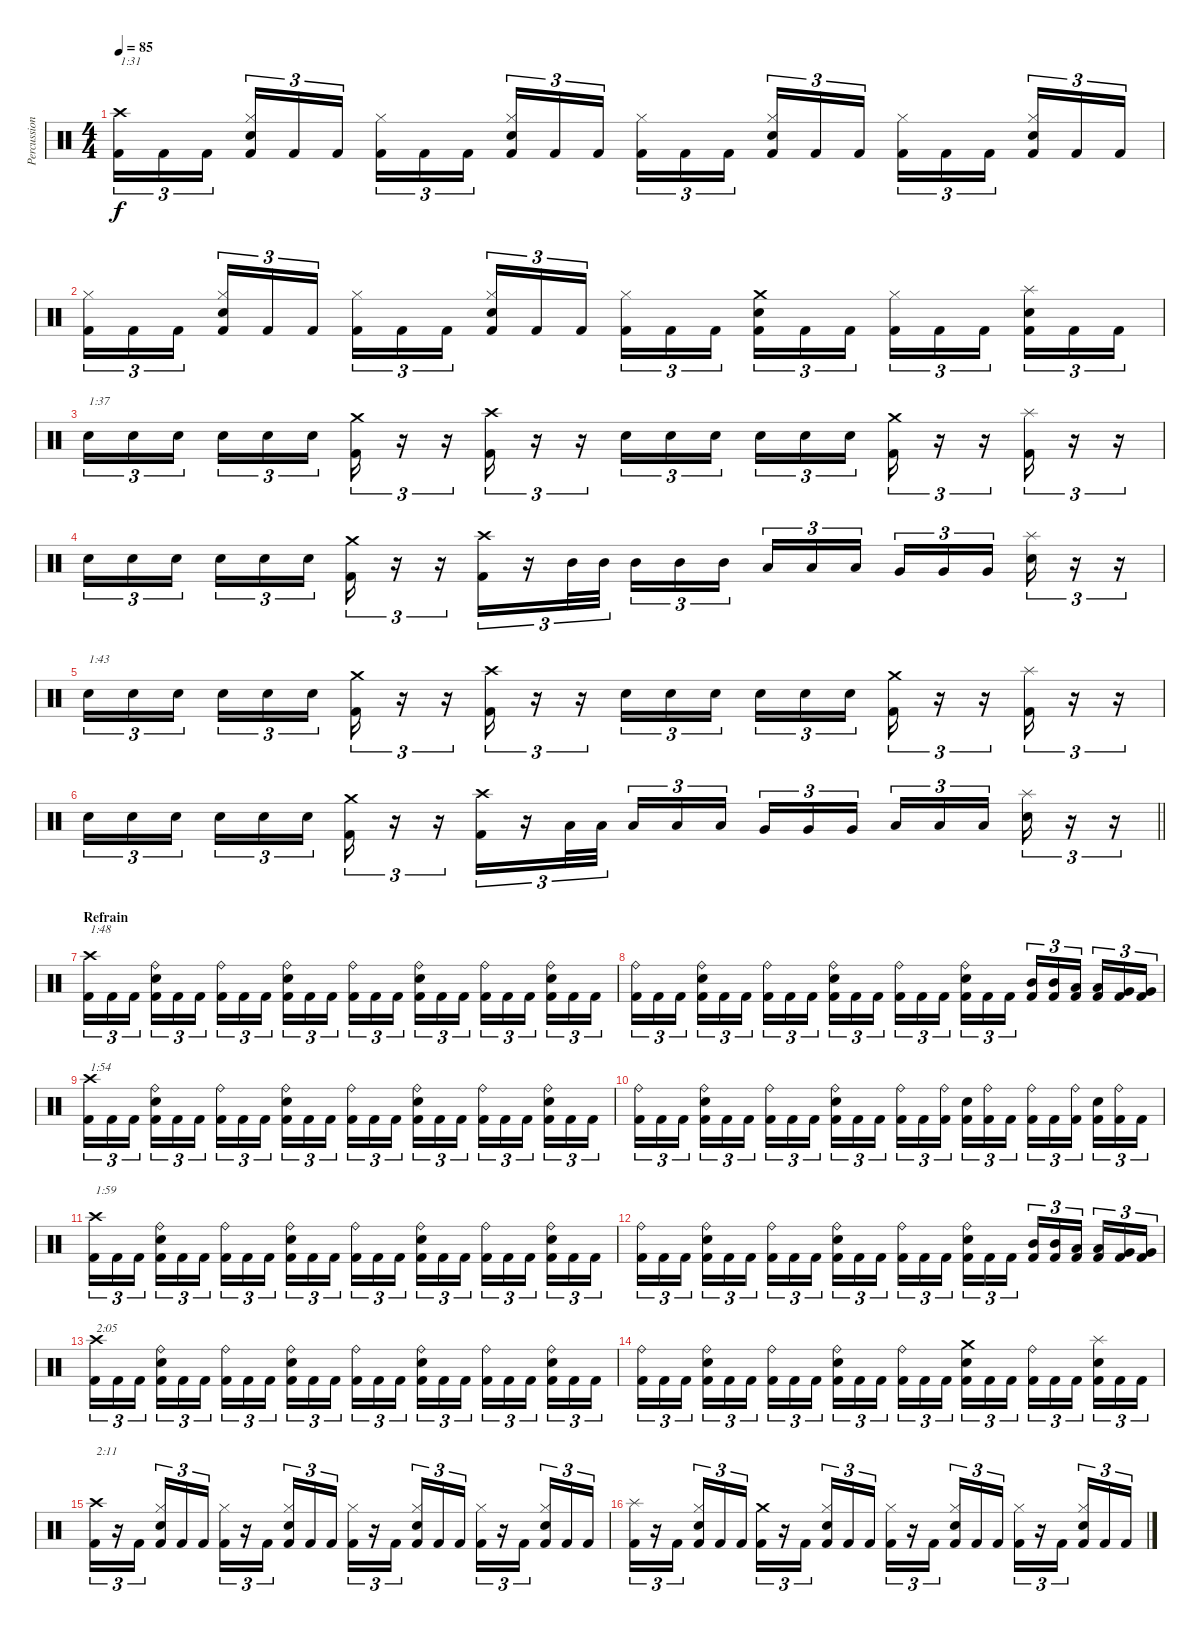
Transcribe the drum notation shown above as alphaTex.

\track ("Percussion" "Percussion") {instrument percussion}
\staff {score}
\articulation defaults
\ts (4 4)
\tempo 85
\clef neutral
\ks c
("Crash high (hit)" "Kick (hit) 2").16{tu (3 2) txt "1:31" dy f} "Kick (hit) 2".16{tu (3 2)} "Kick (hit) 2".16{tu (3 2)} ("Hi-Hat (closed)" "Electric Snare (hit)" "Kick (hit) 2").16{tu (3 2)} "Kick (hit) 2".16{tu (3 2)} "Kick (hit) 2".16{tu (3 2)} ("Hi-Hat (closed)" "Kick (hit) 2").16{tu (3 2)} "Kick (hit) 2".16{tu (3 2)} "Kick (hit) 2".16{tu (3 2)} ("Hi-Hat (closed)" "Electric Snare (hit)" "Kick (hit) 2").16{tu (3 2)} "Kick (hit) 2".16{tu (3 2)} "Kick (hit) 2".16{tu (3 2)} ("Hi-Hat (closed)" "Kick (hit) 2").16{tu (3 2)} "Kick (hit) 2".16{tu (3 2)} "Kick (hit) 2".16{tu (3 2)} ("Hi-Hat (closed)" "Electric Snare (hit)" "Kick (hit) 2").16{tu (3 2)} "Kick (hit) 2".16{tu (3 2)} "Kick (hit) 2".16{tu (3 2)} ("Hi-Hat (closed)" "Kick (hit) 2").16{tu (3 2)} "Kick (hit) 2".16{tu (3 2)} "Kick (hit) 2".16{tu (3 2)} ("Hi-Hat (closed)" "Electric Snare (hit)" "Kick (hit) 2").16{tu (3 2)} "Kick (hit) 2".16{tu (3 2)} "Kick (hit) 2".16{tu (3 2)} |
("Hi-Hat (closed)" "Kick (hit) 2").16{tu (3 2)} "Kick (hit) 2".16{tu (3 2)} "Kick (hit) 2".16{tu (3 2)} ("Hi-Hat (closed)" "Electric Snare (hit)" "Kick (hit) 2").16{tu (3 2)} "Kick (hit) 2".16{tu (3 2)} "Kick (hit) 2".16{tu (3 2)} ("Hi-Hat (closed)" "Kick (hit) 2").16{tu (3 2)} "Kick (hit) 2".16{tu (3 2)} "Kick (hit) 2".16{tu (3 2)} ("Hi-Hat (closed)" "Electric Snare (hit)" "Kick (hit) 2").16{tu (3 2)} "Kick (hit) 2".16{tu (3 2)} "Kick (hit) 2".16{tu (3 2)} ("Hi-Hat (closed)" "Kick (hit) 2").16{tu (3 2)} "Kick (hit) 2".16{tu (3 2)} "Kick (hit) 2".16{tu (3 2)} ("Crash medium (hit)" "Electric Snare (hit)" "Kick (hit) 2").16{tu (3 2)} "Kick (hit) 2".16{tu (3 2)} "Kick (hit) 2".16{tu (3 2)} ("Hi-Hat (closed)" "Kick (hit) 2").16{tu (3 2)} "Kick (hit) 2".16{tu (3 2)} "Kick (hit) 2".16{tu (3 2)} ("Splash (hit)" "Electric Snare (hit)" "Kick (hit) 2").16{tu (3 2)} "Kick (hit) 2".16{tu (3 2)} "Kick (hit) 2".16{tu (3 2)} |
"Electric Snare (hit)".16{tu (3 2) txt "1:37"} "Electric Snare (hit)".16{tu (3 2)} "Electric Snare (hit)".16{tu (3 2)} "Electric Snare (hit)".16{tu (3 2)} "Electric Snare (hit)".16{tu (3 2)} "Electric Snare (hit)".16{tu (3 2)} ("Crash medium (hit)" "Kick (hit) 2").16{tu (3 2)} r.16{tu (3 2)} r.16{tu (3 2)} ("Crash high (hit)" "Kick (hit) 2").16{tu (3 2)} r.16{tu (3 2)} r.16{tu (3 2)} "Electric Snare (hit)".16{tu (3 2)} "Electric Snare (hit)".16{tu (3 2)} "Electric Snare (hit)".16{tu (3 2)} "Electric Snare (hit)".16{tu (3 2)} "Electric Snare (hit)".16{tu (3 2)} "Electric Snare (hit)".16{tu (3 2)} ("Crash medium (hit)" "Kick (hit) 2").16{tu (3 2)} r.16{tu (3 2)} r.16{tu (3 2)} ("Splash (hit)" "Kick (hit) 2").16{tu (3 2)} r.16{tu (3 2)} r.16{tu (3 2)} |
"Electric Snare (hit)".16{tu (3 2)} "Electric Snare (hit)".16{tu (3 2)} "Electric Snare (hit)".16{tu (3 2)} "Electric Snare (hit)".16{tu (3 2)} "Electric Snare (hit)".16{tu (3 2)} "Electric Snare (hit)".16{tu (3 2)} ("Crash medium (hit)" "Kick (hit) 2").16{tu (3 2)} r.16{tu (3 2)} r.16{tu (3 2)} ("Crash high (hit)" "Kick (hit) 2").16{tu (3 2)} r.16{tu (3 2)} "Mid Tom (hit)".32{tu (3 2)} "Mid Tom (hit)".32{tu (3 2)} "Mid Tom (hit)".16{tu (3 2)} "Mid Tom (hit)".16{tu (3 2)} "Mid Tom (hit)".16{tu (3 2)} "Low Tom (hit)".16{tu (3 2)} "Low Tom (hit)".16{tu (3 2)} "Low Tom (hit)".16{tu (3 2)} "Very Low Tom (hit)".16{tu (3 2)} "Very Low Tom (hit)".16{tu (3 2)} "Very Low Tom (hit)".16{tu (3 2)} ("Splash (hit)" "Electric Snare (hit)").16{tu (3 2)} r.16{tu (3 2)} r.16{tu (3 2)} |
"Electric Snare (hit)".16{tu (3 2) txt "1:43"} "Electric Snare (hit)".16{tu (3 2)} "Electric Snare (hit)".16{tu (3 2)} "Electric Snare (hit)".16{tu (3 2)} "Electric Snare (hit)".16{tu (3 2)} "Electric Snare (hit)".16{tu (3 2)} ("Crash medium (hit)" "Kick (hit) 2").16{tu (3 2)} r.16{tu (3 2)} r.16{tu (3 2)} ("Crash high (hit)" "Kick (hit) 2").16{tu (3 2)} r.16{tu (3 2)} r.16{tu (3 2)} "Electric Snare (hit)".16{tu (3 2)} "Electric Snare (hit)".16{tu (3 2)} "Electric Snare (hit)".16{tu (3 2)} "Electric Snare (hit)".16{tu (3 2)} "Electric Snare (hit)".16{tu (3 2)} "Electric Snare (hit)".16{tu (3 2)} ("Crash medium (hit)" "Kick (hit) 2").16{tu (3 2)} r.16{tu (3 2)} r.16{tu (3 2)} ("Splash (hit)" "Kick (hit) 2").16{tu (3 2)} r.16{tu (3 2)} r.16{tu (3 2)} |
\barLineRight lightlight "Electric Snare (hit)".16{tu (3 2)} "Electric Snare (hit)".16{tu (3 2)} "Electric Snare (hit)".16{tu (3 2)} "Electric Snare (hit)".16{tu (3 2)} "Electric Snare (hit)".16{tu (3 2)} "Electric Snare (hit)".16{tu (3 2)}
("Crash medium (hit)" "Kick (hit) 2").16{tu (3 2)} r.16{tu (3 2)} r.16{tu (3 2)} ("Crash high (hit)" "Kick (hit) 2").16{tu (3 2)} r.16{tu (3 2)} "Low Tom (hit)".32{tu (3 2)} "Low Tom (hit)".32{tu (3 2)} "Low Tom (hit)".16{tu (3 2)} "Low Tom (hit)".16{tu (3 2)} "Low Tom (hit)".16{tu (3 2)} "Very Low Tom (hit)".16{tu (3 2)} "Very Low Tom (hit)".16{tu (3 2)} "Very Low Tom (hit)".16{tu (3 2)} "Low Floor Tom (hit)".16{tu (3 2)} "Low Floor Tom (hit)".16{tu (3 2)} "Low Floor Tom (hit)".16{tu (3 2)} ("Splash (hit)" "Electric Snare (hit)").16{tu (3 2)} r.16{tu (3 2)} r.16{tu (3 2)} |
\section ("" "Refrain")
("Crash high (hit)" "Kick (hit) 2").16{tu (3 2) txt "1:48"} "Kick (hit) 2".16{tu (3 2)} "Kick (hit) 2".16{tu (3 2)} ("Ride (bell)" "Electric Snare (hit)" "Kick (hit) 2").16{tu (3 2)} "Kick (hit) 2".16{tu (3 2)} "Kick (hit) 2".16{tu (3 2)} ("Ride (bell)" "Kick (hit) 2").16{tu (3 2)} "Kick (hit) 2".16{tu (3 2)} "Kick (hit) 2".16{tu (3 2)} ("Ride (bell)" "Electric Snare (hit)" "Kick (hit) 2").16{tu (3 2)} "Kick (hit) 2".16{tu (3 2)} "Kick (hit) 2".16{tu (3 2)} ("Ride (bell)" "Kick (hit) 2").16{tu (3 2)} "Kick (hit) 2".16{tu (3 2)} "Kick (hit) 2".16{tu (3 2)} ("Ride (bell)" "Electric Snare (hit)" "Kick (hit) 2").16{tu (3 2)} "Kick (hit) 2".16{tu (3 2)} "Kick (hit) 2".16{tu (3 2)} ("Ride (bell)" "Kick (hit) 2").16{tu (3 2)} "Kick (hit) 2".16{tu (3 2)} "Kick (hit) 2".16{tu (3 2)} ("Ride (bell)" "Electric Snare (hit)" "Kick (hit) 2").16{tu (3 2)} "Kick (hit) 2".16{tu (3 2)} "Kick (hit) 2".16{tu (3 2)} |
("Ride (bell)" "Kick (hit) 2").16{tu (3 2)} "Kick (hit) 2".16{tu (3 2)} "Kick (hit) 2".16{tu (3 2)} ("Ride (bell)" "Electric Snare (hit)" "Kick (hit) 2").16{tu (3 2)} "Kick (hit) 2".16{tu (3 2)} "Kick (hit) 2".16{tu (3 2)} ("Ride (bell)" "Kick (hit) 2").16{tu (3 2)} "Kick (hit) 2".16{tu (3 2)} "Kick (hit) 2".16{tu (3 2)} ("Ride (bell)" "Electric Snare (hit)" "Kick (hit) 2").16{tu (3 2)} "Kick (hit) 2".16{tu (3 2)} "Kick (hit) 2".16{tu (3 2)} ("Ride (bell)" "Kick (hit) 2").16{tu (3 2)} "Kick (hit) 2".16{tu (3 2)} "Kick (hit) 2".16{tu (3 2)} ("Ride (bell)" "Electric Snare (hit)" "Kick (hit) 2").16{tu (3 2)} "Kick (hit) 2".16{tu (3 2)} "Kick (hit) 2".16{tu (3 2)} ("Mid Tom (hit)" "Kick (hit) 2").16{tu (3 2)} ("Mid Tom (hit)" "Kick (hit) 2").16{tu (3 2)} ("Low Tom (hit)" "Kick (hit) 2").16{tu (3 2)} ("Low Tom (hit)" "Kick (hit) 2").16{tu (3 2)} ("Very Low Tom (hit)" "Kick (hit) 2").16{tu (3 2)} ("Very Low Tom (hit)" "Kick (hit) 2").16{tu (3 2)} |
("Crash high (hit)" "Kick (hit) 2").16{tu (3 2) txt "1:54"} "Kick (hit) 2".16{tu (3 2)} "Kick (hit) 2".16{tu (3 2)} ("Ride (bell)" "Electric Snare (hit)" "Kick (hit) 2").16{tu (3 2)} "Kick (hit) 2".16{tu (3 2)} "Kick (hit) 2".16{tu (3 2)} ("Ride (bell)" "Kick (hit) 2").16{tu (3 2)} "Kick (hit) 2".16{tu (3 2)} "Kick (hit) 2".16{tu (3 2)} ("Ride (bell)" "Electric Snare (hit)" "Kick (hit) 2").16{tu (3 2)} "Kick (hit) 2".16{tu (3 2)} "Kick (hit) 2".16{tu (3 2)} ("Ride (bell)" "Kick (hit) 2").16{tu (3 2)} "Kick (hit) 2".16{tu (3 2)} "Kick (hit) 2".16{tu (3 2)} ("Ride (bell)" "Electric Snare (hit)" "Kick (hit) 2").16{tu (3 2)} "Kick (hit) 2".16{tu (3 2)} "Kick (hit) 2".16{tu (3 2)} ("Ride (bell)" "Kick (hit) 2").16{tu (3 2)} "Kick (hit) 2".16{tu (3 2)} "Kick (hit) 2".16{tu (3 2)} ("Ride (bell)" "Electric Snare (hit)" "Kick (hit) 2").16{tu (3 2)} "Kick (hit) 2".16{tu (3 2)} "Kick (hit) 2".16{tu (3 2)} |
("Ride (bell)" "Kick (hit) 2").16{tu (3 2)} "Kick (hit) 2".16{tu (3 2)} "Kick (hit) 2".16{tu (3 2)} ("Ride (bell)" "Electric Snare (hit)" "Kick (hit) 2").16{tu (3 2)} "Kick (hit) 2".16{tu (3 2)} "Kick (hit) 2".16{tu (3 2)} ("Ride (bell)" "Kick (hit) 2").16{tu (3 2)} "Kick (hit) 2".16{tu (3 2)} "Kick (hit) 2".16{tu (3 2)} ("Ride (bell)" "Electric Snare (hit)" "Kick (hit) 2").16{tu (3 2)} "Kick (hit) 2".16{tu (3 2)} "Kick (hit) 2".16{tu (3 2)} ("Ride (bell)" "Kick (hit) 2").16{tu (3 2)} "Kick (hit) 2".16{tu (3 2)} ("Ride (bell)" "Kick (hit) 2").16{tu (3 2)} ("Electric Snare (hit)" "Kick (hit) 2").16{tu (3 2)} ("Ride (bell)" "Kick (hit) 2").16{tu (3 2)} "Kick (hit) 2".16{tu (3 2)} ("Ride (bell)" "Kick (hit) 2").16{tu (3 2)} "Kick (hit) 2".16{tu (3 2)} ("Ride (bell)" "Kick (hit) 2").16{tu (3 2)} ("Electric Snare (hit)" "Kick (hit) 2").16{tu (3 2)} ("Ride (bell)" "Kick (hit) 2").16{tu (3 2)} "Kick (hit) 2".16{tu (3 2)} |
("Crash high (hit)" "Kick (hit) 2").16{tu (3 2) txt "1:59"} "Kick (hit) 2".16{tu (3 2)} "Kick (hit) 2".16{tu (3 2)} ("Ride (bell)" "Electric Snare (hit)" "Kick (hit) 2").16{tu (3 2)} "Kick (hit) 2".16{tu (3 2)} "Kick (hit) 2".16{tu (3 2)} ("Ride (bell)" "Kick (hit) 2").16{tu (3 2)} "Kick (hit) 2".16{tu (3 2)} "Kick (hit) 2".16{tu (3 2)} ("Ride (bell)" "Electric Snare (hit)" "Kick (hit) 2").16{tu (3 2)} "Kick (hit) 2".16{tu (3 2)} "Kick (hit) 2".16{tu (3 2)} ("Ride (bell)" "Kick (hit) 2").16{tu (3 2)} "Kick (hit) 2".16{tu (3 2)} "Kick (hit) 2".16{tu (3 2)} ("Ride (bell)" "Electric Snare (hit)" "Kick (hit) 2").16{tu (3 2)} "Kick (hit) 2".16{tu (3 2)} "Kick (hit) 2".16{tu (3 2)} ("Ride (bell)" "Kick (hit) 2").16{tu (3 2)} "Kick (hit) 2".16{tu (3 2)} "Kick (hit) 2".16{tu (3 2)} ("Ride (bell)" "Electric Snare (hit)" "Kick (hit) 2").16{tu (3 2)} "Kick (hit) 2".16{tu (3 2)} "Kick (hit) 2".16{tu (3 2)} |
("Ride (bell)" "Kick (hit) 2").16{tu (3 2)} "Kick (hit) 2".16{tu (3 2)} "Kick (hit) 2".16{tu (3 2)} ("Ride (bell)" "Electric Snare (hit)" "Kick (hit) 2").16{tu (3 2)} "Kick (hit) 2".16{tu (3 2)} "Kick (hit) 2".16{tu (3 2)} ("Ride (bell)" "Kick (hit) 2").16{tu (3 2)} "Kick (hit) 2".16{tu (3 2)} "Kick (hit) 2".16{tu (3 2)} ("Ride (bell)" "Electric Snare (hit)" "Kick (hit) 2").16{tu (3 2)} "Kick (hit) 2".16{tu (3 2)} "Kick (hit) 2".16{tu (3 2)} ("Ride (bell)" "Kick (hit) 2").16{tu (3 2)} "Kick (hit) 2".16{tu (3 2)} "Kick (hit) 2".16{tu (3 2)} ("Ride (bell)" "Electric Snare (hit)" "Kick (hit) 2").16{tu (3 2)} "Kick (hit) 2".16{tu (3 2)} "Kick (hit) 2".16{tu (3 2)} ("Mid Tom (hit)" "Kick (hit) 2").16{tu (3 2)} ("Mid Tom (hit)" "Kick (hit) 2").16{tu (3 2)} ("Low Tom (hit)" "Kick (hit) 2").16{tu (3 2)} ("Low Tom (hit)" "Kick (hit) 2").16{tu (3 2)} ("Very Low Tom (hit)" "Kick (hit) 2").16{tu (3 2)} ("Very Low Tom (hit)" "Kick (hit) 2").16{tu (3 2)} |
("Crash high (hit)" "Kick (hit) 2").16{tu (3 2) txt "2:05"} "Kick (hit) 2".16{tu (3 2)} "Kick (hit) 2".16{tu (3 2)} ("Ride (bell)" "Electric Snare (hit)" "Kick (hit) 2").16{tu (3 2)} "Kick (hit) 2".16{tu (3 2)} "Kick (hit) 2".16{tu (3 2)} ("Ride (bell)" "Kick (hit) 2").16{tu (3 2)} "Kick (hit) 2".16{tu (3 2)} "Kick (hit) 2".16{tu (3 2)} ("Ride (bell)" "Electric Snare (hit)" "Kick (hit) 2").16{tu (3 2)} "Kick (hit) 2".16{tu (3 2)} "Kick (hit) 2".16{tu (3 2)} ("Ride (bell)" "Kick (hit) 2").16{tu (3 2)} "Kick (hit) 2".16{tu (3 2)} "Kick (hit) 2".16{tu (3 2)} ("Ride (bell)" "Electric Snare (hit)" "Kick (hit) 2").16{tu (3 2)} "Kick (hit) 2".16{tu (3 2)} "Kick (hit) 2".16{tu (3 2)} ("Ride (bell)" "Kick (hit) 2").16{tu (3 2)} "Kick (hit) 2".16{tu (3 2)} "Kick (hit) 2".16{tu (3 2)} ("Ride (bell)" "Electric Snare (hit)" "Kick (hit) 2").16{tu (3 2)} "Kick (hit) 2".16{tu (3 2)} "Kick (hit) 2".16{tu (3 2)} |
("Ride (bell)" "Kick (hit) 2").16{tu (3 2)} "Kick (hit) 2".16{tu (3 2)} "Kick (hit) 2".16{tu (3 2)} ("Ride (bell)" "Electric Snare (hit)" "Kick (hit) 2").16{tu (3 2)} "Kick (hit) 2".16{tu (3 2)} "Kick (hit) 2".16{tu (3 2)} ("Ride (bell)" "Kick (hit) 2").16{tu (3 2)} "Kick (hit) 2".16{tu (3 2)} "Kick (hit) 2".16{tu (3 2)} ("Ride (bell)" "Electric Snare (hit)" "Kick (hit) 2").16{tu (3 2)} "Kick (hit) 2".16{tu (3 2)} "Kick (hit) 2".16{tu (3 2)} ("Ride (bell)" "Kick (hit) 2").16{tu (3 2)} "Kick (hit) 2".16{tu (3 2)} "Kick (hit) 2".16{tu (3 2)} ("Crash medium (hit)" "Electric Snare (hit)" "Kick (hit) 2").16{tu (3 2)} "Kick (hit) 2".16{tu (3 2)} "Kick (hit) 2".16{tu (3 2)} ("Ride (bell)" "Kick (hit) 2").16{tu (3 2)} "Kick (hit) 2".16{tu (3 2)} "Kick (hit) 2".16{tu (3 2)} ("Splash (hit)" "Electric Snare (hit)" "Kick (hit) 2").16{tu (3 2)} "Kick (hit) 2".16{tu (3 2)} "Kick (hit) 2".16{tu (3 2)} |
("Crash high (hit)" "Kick (hit) 2").16{tu (3 2) txt "2:11"} r.16{tu (3 2)} "Kick (hit) 2".16{tu (3 2)} ("Hi-Hat (closed)" "Electric Snare (hit)" "Kick (hit) 2").16{tu (3 2)} "Kick (hit) 2".16{tu (3 2)} "Kick (hit) 2".16{tu (3 2)} ("Hi-Hat (closed)" "Kick (hit) 2").16{tu (3 2)} r.16{tu (3 2)} "Kick (hit) 2".16{tu (3 2)} ("Hi-Hat (closed)" "Electric Snare (hit)" "Kick (hit) 2").16{tu (3 2)} "Kick (hit) 2".16{tu (3 2)} "Kick (hit) 2".16{tu (3 2)} ("Hi-Hat (closed)" "Kick (hit) 2").16{tu (3 2)} r.16{tu (3 2)} "Kick (hit) 2".16{tu (3 2)} ("Hi-Hat (closed)" "Electric Snare (hit)" "Kick (hit) 2").16{tu (3 2)} "Kick (hit) 2".16{tu (3 2)} "Kick (hit) 2".16{tu (3 2)} ("Hi-Hat (closed)" "Kick (hit) 2").16{tu (3 2)} r.16{tu (3 2)} "Kick (hit) 2".16{tu (3 2)} ("Hi-Hat (closed)" "Electric Snare (hit)" "Kick (hit) 2").16{tu (3 2)} "Kick (hit) 2".16{tu (3 2)} "Kick (hit) 2".16{tu (3 2)} |
("Splash (hit)" "Kick (hit) 2").16{tu (3 2)} r.16{tu (3 2)} "Kick (hit) 2".16{tu (3 2)} ("Hi-Hat (closed)" "Electric Snare (hit)" "Kick (hit) 2").16{tu (3 2)} "Kick (hit) 2".16{tu (3 2)} "Kick (hit) 2".16{tu (3 2)} ("Crash medium (hit)" "Kick (hit) 2").16{tu (3 2)} r.16{tu (3 2)} "Kick (hit) 2".16{tu (3 2)} ("Hi-Hat (closed)" "Electric Snare (hit)" "Kick (hit) 2").16{tu (3 2)} "Kick (hit) 2".16{tu (3 2)} "Kick (hit) 2".16{tu (3 2)} ("Hi-Hat (closed)" "Kick (hit) 2").16{tu (3 2)} r.16{tu (3 2)} "Kick (hit) 2".16{tu (3 2)} ("Hi-Hat (closed)" "Electric Snare (hit)" "Kick (hit) 2").16{tu (3 2)} "Kick (hit) 2".16{tu (3 2)} "Kick (hit) 2".16{tu (3 2)} ("Hi-Hat (closed)" "Kick (hit) 2").16{tu (3 2)} r.16{tu (3 2)} "Kick (hit) 2".16{tu (3 2)} ("Hi-Hat (closed)" "Electric Snare (hit)" "Kick (hit) 2").16{tu (3 2)} "Kick (hit) 2".16{tu (3 2)} "Kick (hit) 2".16{tu (3 2)}
